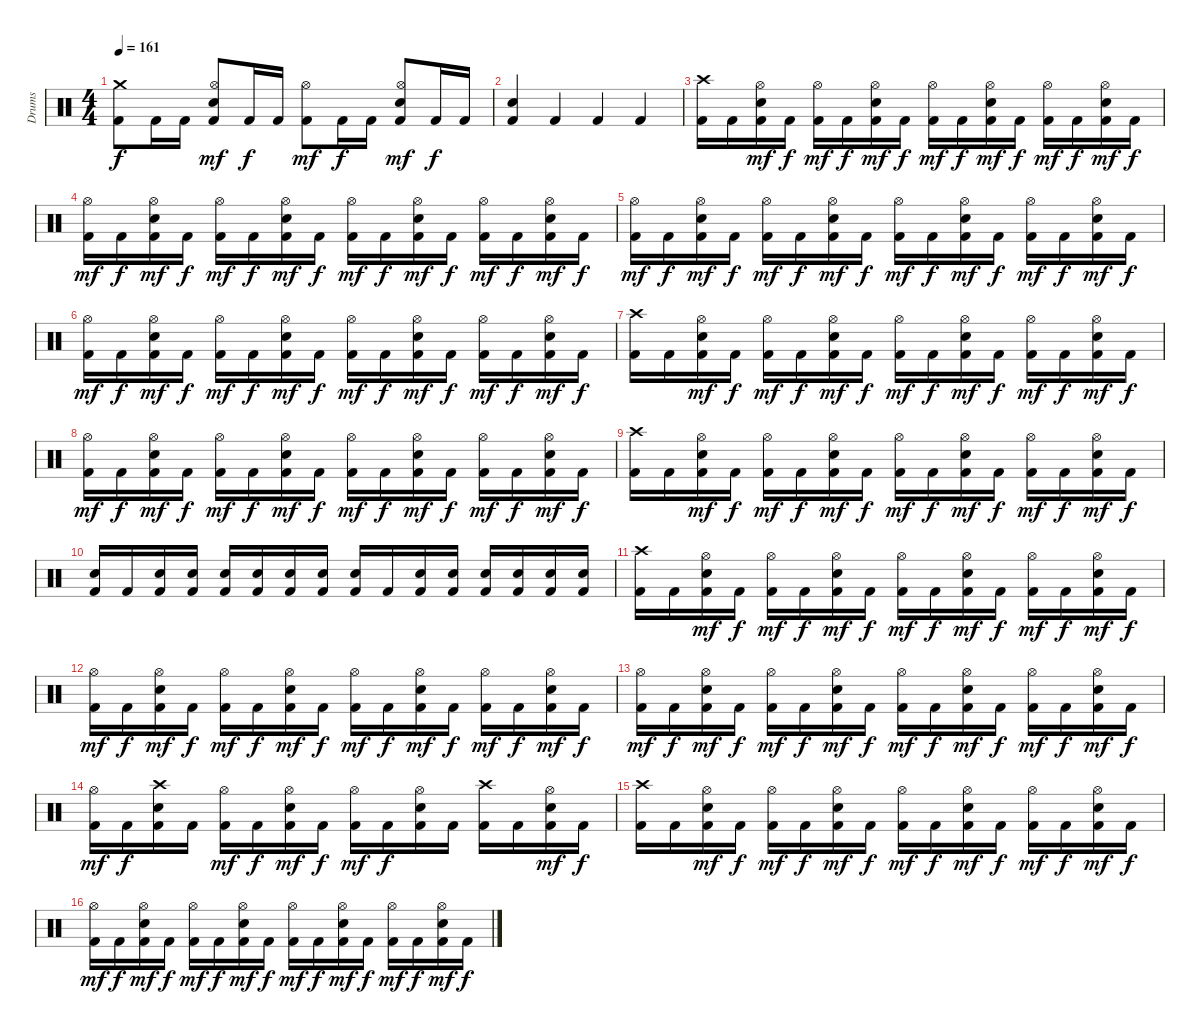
\track ("Drums" "Drums") {instrument percussion}
\staff {score}
\articulation defaults
\ts (4 4)
\tempo 161
\clef neutral
\ks c
("Crash medium (hit)" "Kick (hit) 2").8{dy f} "Kick (hit) 2".16 "Kick (hit) 2".16 ("Hi-Hat (open)" "Electric Snare (hit)" "Kick (hit) 2").8{dy mf} "Kick (hit) 2".16{dy f} "Kick (hit) 2".16 ("Hi-Hat (open)" "Kick (hit) 2").8{dy mf} "Kick (hit) 2".16{dy f} "Kick (hit) 2".16 ("Hi-Hat (open)" "Electric Snare (hit)" "Kick (hit) 2").8{dy mf} "Kick (hit) 2".16{dy f} "Kick (hit) 2".16 |
("Electric Snare (hit)" "Kick (hit) 2").4 "Kick (hit) 2".4 "Kick (hit) 2".4 "Kick (hit) 2".4 |
("Crash high (hit)" "Kick (hit) 2").16 "Kick (hit) 2".16 ("Hi-Hat (open)" "Electric Snare (hit)" "Kick (hit) 2").16{dy mf} "Kick (hit) 2".16{dy f} ("Hi-Hat (open)" "Kick (hit) 2").16{dy mf} "Kick (hit) 2".16{dy f} ("Hi-Hat (open)" "Electric Snare (hit)" "Kick (hit) 2").16{dy mf} "Kick (hit) 2".16{dy f} ("Hi-Hat (open)" "Kick (hit) 2").16{dy mf} "Kick (hit) 2".16{dy f} ("Hi-Hat (open)" "Electric Snare (hit)" "Kick (hit) 2").16{dy mf} "Kick (hit) 2".16{dy f} ("Hi-Hat (open)" "Kick (hit) 2").16{dy mf} "Kick (hit) 2".16{dy f} ("Hi-Hat (open)" "Electric Snare (hit)" "Kick (hit) 2").16{dy mf} "Kick (hit) 2".16{dy f} |
("Hi-Hat (open)" "Kick (hit) 2").16{dy mf} "Kick (hit) 2".16{dy f} ("Hi-Hat (open)" "Electric Snare (hit)" "Kick (hit) 2").16{dy mf} "Kick (hit) 2".16{dy f} ("Hi-Hat (open)" "Kick (hit) 2").16{dy mf} "Kick (hit) 2".16{dy f} ("Hi-Hat (open)" "Electric Snare (hit)" "Kick (hit) 2").16{dy mf} "Kick (hit) 2".16{dy f} ("Hi-Hat (open)" "Kick (hit) 2").16{dy mf} "Kick (hit) 2".16{dy f} ("Hi-Hat (open)" "Electric Snare (hit)" "Kick (hit) 2").16{dy mf} "Kick (hit) 2".16{dy f} ("Hi-Hat (open)" "Kick (hit) 2").16{dy mf} "Kick (hit) 2".16{dy f} ("Hi-Hat (open)" "Electric Snare (hit)" "Kick (hit) 2").16{dy mf} "Kick (hit) 2".16{dy f} |
("Hi-Hat (open)" "Kick (hit) 2").16{dy mf} "Kick (hit) 2".16{dy f} ("Hi-Hat (open)" "Electric Snare (hit)" "Kick (hit) 2").16{dy mf} "Kick (hit) 2".16{dy f} ("Hi-Hat (open)" "Kick (hit) 2").16{dy mf} "Kick (hit) 2".16{dy f} ("Hi-Hat (open)" "Electric Snare (hit)" "Kick (hit) 2").16{dy mf} "Kick (hit) 2".16{dy f} ("Hi-Hat (open)" "Kick (hit) 2").16{dy mf} "Kick (hit) 2".16{dy f} ("Hi-Hat (open)" "Electric Snare (hit)" "Kick (hit) 2").16{dy mf} "Kick (hit) 2".16{dy f} ("Hi-Hat (open)" "Kick (hit) 2").16{dy mf} "Kick (hit) 2".16{dy f} ("Hi-Hat (open)" "Electric Snare (hit)" "Kick (hit) 2").16{dy mf} "Kick (hit) 2".16{dy f} |
("Hi-Hat (open)" "Kick (hit) 2").16{dy mf} "Kick (hit) 2".16{dy f} ("Hi-Hat (open)" "Electric Snare (hit)" "Kick (hit) 2").16{dy mf} "Kick (hit) 2".16{dy f} ("Hi-Hat (open)" "Kick (hit) 2").16{dy mf} "Kick (hit) 2".16{dy f} ("Hi-Hat (open)" "Electric Snare (hit)" "Kick (hit) 2").16{dy mf} "Kick (hit) 2".16{dy f} ("Hi-Hat (open)" "Kick (hit) 2").16{dy mf} "Kick (hit) 2".16{dy f} ("Hi-Hat (open)" "Electric Snare (hit)" "Kick (hit) 2").16{dy mf} "Kick (hit) 2".16{dy f} ("Hi-Hat (open)" "Kick (hit) 2").16{dy mf} "Kick (hit) 2".16{dy f} ("Hi-Hat (open)" "Electric Snare (hit)" "Kick (hit) 2").16{dy mf} "Kick (hit) 2".16{dy f} |
("Crash high (hit)" "Kick (hit) 2").16 "Kick (hit) 2".16 ("Hi-Hat (open)" "Electric Snare (hit)" "Kick (hit) 2").16{dy mf} "Kick (hit) 2".16{dy f} ("Hi-Hat (open)" "Kick (hit) 2").16{dy mf} "Kick (hit) 2".16{dy f} ("Hi-Hat (open)" "Electric Snare (hit)" "Kick (hit) 2").16{dy mf} "Kick (hit) 2".16{dy f} ("Hi-Hat (open)" "Kick (hit) 2").16{dy mf} "Kick (hit) 2".16{dy f} ("Hi-Hat (open)" "Electric Snare (hit)" "Kick (hit) 2").16{dy mf} "Kick (hit) 2".16{dy f} ("Hi-Hat (open)" "Kick (hit) 2").16{dy mf} "Kick (hit) 2".16{dy f} ("Hi-Hat (open)" "Electric Snare (hit)" "Kick (hit) 2").16{dy mf} "Kick (hit) 2".16{dy f} |
("Hi-Hat (open)" "Kick (hit) 2").16{dy mf} "Kick (hit) 2".16{dy f} ("Hi-Hat (open)" "Electric Snare (hit)" "Kick (hit) 2").16{dy mf} "Kick (hit) 2".16{dy f} ("Hi-Hat (open)" "Kick (hit) 2").16{dy mf} "Kick (hit) 2".16{dy f} ("Hi-Hat (open)" "Electric Snare (hit)" "Kick (hit) 2").16{dy mf} "Kick (hit) 2".16{dy f} ("Hi-Hat (open)" "Kick (hit) 2").16{dy mf} "Kick (hit) 2".16{dy f} ("Hi-Hat (open)" "Electric Snare (hit)" "Kick (hit) 2").16{dy mf} "Kick (hit) 2".16{dy f} ("Hi-Hat (open)" "Kick (hit) 2").16{dy mf} "Kick (hit) 2".16{dy f} ("Hi-Hat (open)" "Electric Snare (hit)" "Kick (hit) 2").16{dy mf} "Kick (hit) 2".16{dy f} |
("Crash high (hit)" "Kick (hit) 2").16 "Kick (hit) 2".16 ("Hi-Hat (open)" "Electric Snare (hit)" "Kick (hit) 2").16{dy mf} "Kick (hit) 2".16{dy f} ("Hi-Hat (open)" "Kick (hit) 2").16{dy mf} "Kick (hit) 2".16{dy f} ("Hi-Hat (open)" "Electric Snare (hit)" "Kick (hit) 2").16{dy mf} "Kick (hit) 2".16{dy f} ("Hi-Hat (open)" "Kick (hit) 2").16{dy mf} "Kick (hit) 2".16{dy f} ("Hi-Hat (open)" "Electric Snare (hit)" "Kick (hit) 2").16{dy mf} "Kick (hit) 2".16{dy f} ("Hi-Hat (open)" "Kick (hit) 2").16{dy mf} "Kick (hit) 2".16{dy f} ("Hi-Hat (open)" "Electric Snare (hit)" "Kick (hit) 2").16{dy mf} "Kick (hit) 2".16{dy f} |
("Electric Snare (hit)" "Kick (hit) 2").16 "Kick (hit) 2".16 ("Electric Snare (hit)" "Kick (hit) 2").16 ("Electric Snare (hit)" "Kick (hit) 2").16 ("Electric Snare (hit)" "Kick (hit) 2").16 ("Electric Snare (hit)" "Kick (hit) 2").16 ("Electric Snare (hit)" "Kick (hit) 2").16 ("Electric Snare (hit)" "Kick (hit) 2").16 ("Electric Snare (hit)" "Kick (hit) 2").16 "Kick (hit) 2".16 ("Electric Snare (hit)" "Kick (hit) 2").16 ("Electric Snare (hit)" "Kick (hit) 2").16 ("Electric Snare (hit)" "Kick (hit) 2").16 ("Electric Snare (hit)" "Kick (hit) 2").16 ("Electric Snare (hit)" "Kick (hit) 2").16 ("Electric Snare (hit)" "Kick (hit) 2").16 |
("Crash high (hit)" "Kick (hit) 2").16 "Kick (hit) 2".16 ("Hi-Hat (open)" "Electric Snare (hit)" "Kick (hit) 2").16{dy mf} "Kick (hit) 2".16{dy f} ("Hi-Hat (open)" "Kick (hit) 2").16{dy mf} "Kick (hit) 2".16{dy f} ("Hi-Hat (open)" "Electric Snare (hit)" "Kick (hit) 2").16{dy mf} "Kick (hit) 2".16{dy f} ("Hi-Hat (open)" "Kick (hit) 2").16{dy mf} "Kick (hit) 2".16{dy f} ("Hi-Hat (open)" "Electric Snare (hit)" "Kick (hit) 2").16{dy mf} "Kick (hit) 2".16{dy f} ("Hi-Hat (open)" "Kick (hit) 2").16{dy mf} "Kick (hit) 2".16{dy f} ("Hi-Hat (open)" "Electric Snare (hit)" "Kick (hit) 2").16{dy mf} "Kick (hit) 2".16{dy f} |
("Hi-Hat (open)" "Kick (hit) 2").16{dy mf} "Kick (hit) 2".16{dy f} ("Hi-Hat (open)" "Electric Snare (hit)" "Kick (hit) 2").16{dy mf} "Kick (hit) 2".16{dy f} ("Hi-Hat (open)" "Kick (hit) 2").16{dy mf} "Kick (hit) 2".16{dy f} ("Hi-Hat (open)" "Electric Snare (hit)" "Kick (hit) 2").16{dy mf} "Kick (hit) 2".16{dy f} ("Hi-Hat (open)" "Kick (hit) 2").16{dy mf} "Kick (hit) 2".16{dy f} ("Hi-Hat (open)" "Electric Snare (hit)" "Kick (hit) 2").16{dy mf} "Kick (hit) 2".16{dy f} ("Hi-Hat (open)" "Kick (hit) 2").16{dy mf} "Kick (hit) 2".16{dy f} ("Hi-Hat (open)" "Electric Snare (hit)" "Kick (hit) 2").16{dy mf} "Kick (hit) 2".16{dy f} |
("Hi-Hat (open)" "Kick (hit) 2").16{dy mf} "Kick (hit) 2".16{dy f} ("Hi-Hat (open)" "Electric Snare (hit)" "Kick (hit) 2").16{dy mf} "Kick (hit) 2".16{dy f} ("Hi-Hat (open)" "Kick (hit) 2").16{dy mf} "Kick (hit) 2".16{dy f} ("Hi-Hat (open)" "Electric Snare (hit)" "Kick (hit) 2").16{dy mf} "Kick (hit) 2".16{dy f} ("Hi-Hat (open)" "Kick (hit) 2").16{dy mf} "Kick (hit) 2".16{dy f} ("Hi-Hat (open)" "Electric Snare (hit)" "Kick (hit) 2").16{dy mf} "Kick (hit) 2".16{dy f} ("Hi-Hat (open)" "Kick (hit) 2").16{dy mf} "Kick (hit) 2".16{dy f} ("Hi-Hat (open)" "Electric Snare (hit)" "Kick (hit) 2").16{dy mf} "Kick (hit) 2".16{dy f} |
("Hi-Hat (open)" "Kick (hit) 2").16{dy mf} "Kick (hit) 2".16{dy f} ("Crash high (hit)" "Electric Snare (hit)" "Kick (hit) 2").16 "Kick (hit) 2".16 ("Hi-Hat (open)" "Kick (hit) 2").16{dy mf} "Kick (hit) 2".16{dy f} ("Hi-Hat (open)" "Electric Snare (hit)" "Kick (hit) 2").16{dy mf} "Kick (hit) 2".16{dy f} ("Hi-Hat (open)" "Kick (hit) 2").16{dy mf} "Kick (hit) 2".16{dy f} ("Hi-Hat (open)" "Electric Snare (hit)" "Kick (hit) 2").16 "Kick (hit) 2".16 ("Crash high (hit)" "Kick (hit) 2").16 "Kick (hit) 2".16 ("Hi-Hat (open)" "Electric Snare (hit)" "Kick (hit) 2").16{dy mf} "Kick (hit) 2".16{dy f} |
("Crash high (hit)" "Kick (hit) 2").16 "Kick (hit) 2".16 ("Hi-Hat (open)" "Electric Snare (hit)" "Kick (hit) 2").16{dy mf} "Kick (hit) 2".16{dy f} ("Hi-Hat (open)" "Kick (hit) 2").16{dy mf} "Kick (hit) 2".16{dy f} ("Hi-Hat (open)" "Electric Snare (hit)" "Kick (hit) 2").16{dy mf} "Kick (hit) 2".16{dy f} ("Hi-Hat (open)" "Kick (hit) 2").16{dy mf} "Kick (hit) 2".16{dy f} ("Hi-Hat (open)" "Electric Snare (hit)" "Kick (hit) 2").16{dy mf} "Kick (hit) 2".16{dy f} ("Hi-Hat (open)" "Kick (hit) 2").16{dy mf} "Kick (hit) 2".16{dy f} ("Hi-Hat (open)" "Electric Snare (hit)" "Kick (hit) 2").16{dy mf} "Kick (hit) 2".16{dy f} |
("Hi-Hat (open)" "Kick (hit) 2").16{dy mf} "Kick (hit) 2".16{dy f} ("Hi-Hat (open)" "Electric Snare (hit)" "Kick (hit) 2").16{dy mf} "Kick (hit) 2".16{dy f} ("Hi-Hat (open)" "Kick (hit) 2").16{dy mf} "Kick (hit) 2".16{dy f} ("Hi-Hat (open)" "Electric Snare (hit)" "Kick (hit) 2").16{dy mf} "Kick (hit) 2".16{dy f} ("Hi-Hat (open)" "Kick (hit) 2").16{dy mf} "Kick (hit) 2".16{dy f} ("Hi-Hat (open)" "Electric Snare (hit)" "Kick (hit) 2").16{dy mf} "Kick (hit) 2".16{dy f} ("Hi-Hat (open)" "Kick (hit) 2").16{dy mf} "Kick (hit) 2".16{dy f} ("Hi-Hat (open)" "Electric Snare (hit)" "Kick (hit) 2").16{dy mf} "Kick (hit) 2".16{dy f}
